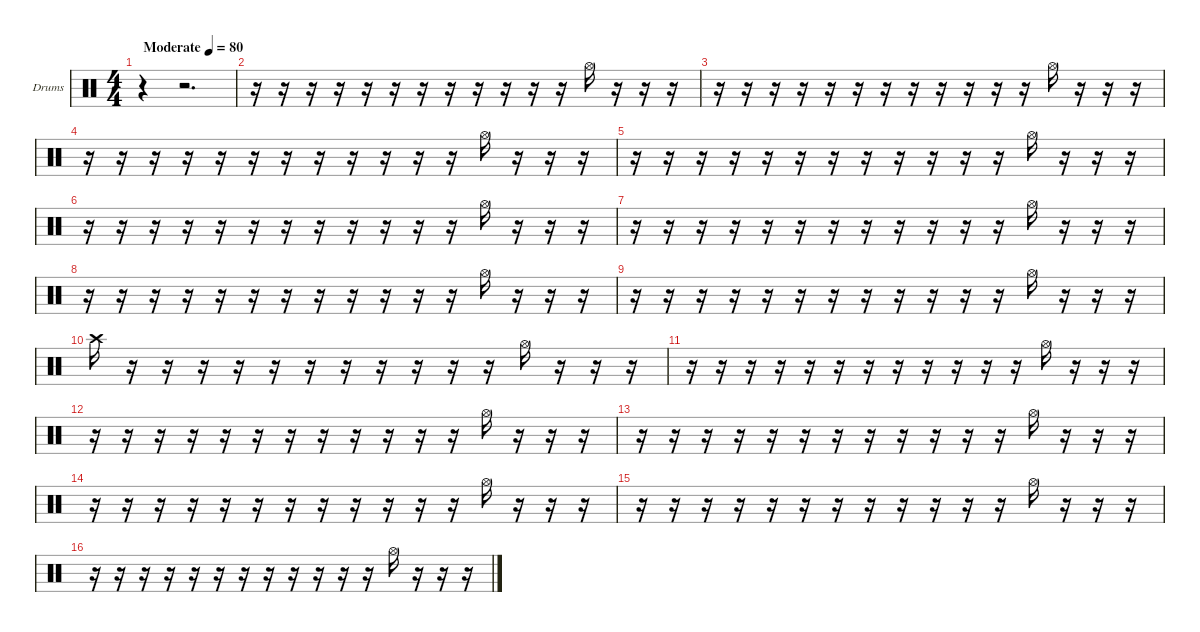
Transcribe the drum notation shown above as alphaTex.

\hideDynamics
\bracketExtendMode nobrackets
\firstSystemTrackNameOrientation horizontal
\otherSystemsTrackNameOrientation horizontal
\track ("Drumkit" "Drums") {instrument percussion}
\staff {score}
\articulation defaults
\ts (4 4)
\beaming (8 2 2 2 2)
\tempo (80 "Moderate")
\clef neutral
\ks c
r.4{dy f} r.2{d} |
r.16 r.16 r.16 r.16 r.16 r.16 r.16 r.16 r.16 r.16 r.16 r.16 "Hi-Hat (open)".16 r.16 r.16 r.16 |
r.16 r.16 r.16 r.16 r.16 r.16 r.16 r.16 r.16 r.16 r.16 r.16 "Hi-Hat (open)".16 r.16 r.16 r.16 |
r.16 r.16 r.16 r.16 r.16 r.16 r.16 r.16 r.16 r.16 r.16 r.16 "Hi-Hat (open)".16 r.16 r.16 r.16 |
r.16 r.16 r.16 r.16 r.16 r.16 r.16 r.16 r.16 r.16 r.16 r.16 "Hi-Hat (open)".16 r.16 r.16 r.16 |
r.16 r.16 r.16 r.16 r.16 r.16 r.16 r.16 r.16 r.16 r.16 r.16 "Hi-Hat (open)".16 r.16 r.16 r.16 |
r.16 r.16 r.16 r.16 r.16 r.16 r.16 r.16 r.16 r.16 r.16 r.16 "Hi-Hat (open)".16 r.16 r.16 r.16 |
r.16 r.16 r.16 r.16 r.16 r.16 r.16 r.16 r.16 r.16 r.16 r.16 "Hi-Hat (open)".16 r.16 r.16 r.16 |
r.16 r.16 r.16 r.16 r.16 r.16 r.16 r.16 r.16 r.16 r.16 r.16 "Hi-Hat (open)".16 r.16 r.16 r.16 |
"Crash high (hit)".16 r.16 r.16 r.16 r.16 r.16 r.16 r.16 r.16 r.16 r.16 r.16 "Hi-Hat (open)".16 r.16 r.16 r.16 |
r.16 r.16 r.16 r.16 r.16 r.16 r.16 r.16 r.16 r.16 r.16 r.16 "Hi-Hat (open)".16 r.16 r.16 r.16 |
r.16 r.16 r.16 r.16 r.16 r.16 r.16 r.16 r.16 r.16 r.16 r.16 "Hi-Hat (open)".16 r.16 r.16 r.16 |
r.16 r.16 r.16 r.16 r.16 r.16 r.16 r.16 r.16 r.16 r.16 r.16 "Hi-Hat (open)".16 r.16 r.16 r.16 |
r.16 r.16 r.16 r.16 r.16 r.16 r.16 r.16 r.16 r.16 r.16 r.16 "Hi-Hat (open)".16 r.16 r.16 r.16 |
r.16 r.16 r.16 r.16 r.16 r.16 r.16 r.16 r.16 r.16 r.16 r.16 "Hi-Hat (open)".16 r.16 r.16 r.16 |
r.16 r.16 r.16 r.16 r.16 r.16 r.16 r.16 r.16 r.16 r.16 r.16 "Hi-Hat (open)".16 r.16 r.16 r.16
